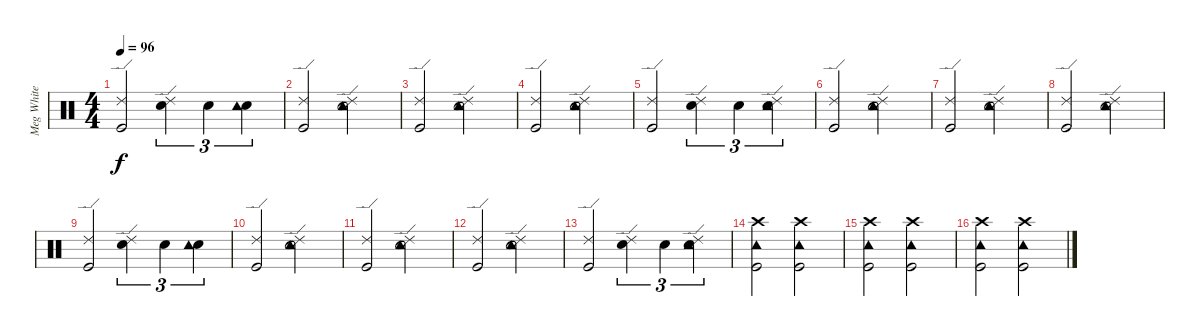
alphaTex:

\track ("Meg White" "Meg White") {instrument percussion}
\staff {score}
\articulation defaults
\ts (4 4)
\tempo 96
\clef neutral
\ks c
("Kick (hit)" "Ride (edge) 2").2{dy f} ("Electric Snare (hit)" "Ride (edge) 2").4{tu (3 2)} "Electric Snare (hit)".4{tu (3 2)} ("Electric Snare (hit)" "Tambourine (hit)").4{tu (3 2)} |
("Kick (hit)" "Ride (edge) 2").2 ("Electric Snare (hit)" "Tambourine (hit)" "Ride (edge) 2").2 |
("Kick (hit)" "Ride (edge) 2").2 ("Electric Snare (hit)" "Tambourine (hit)" "Ride (edge) 2").2 |
("Kick (hit)" "Ride (edge) 2").2 ("Electric Snare (hit)" "Tambourine (hit)" "Ride (edge) 2").2 |
("Kick (hit)" "Ride (edge) 2").2 ("Electric Snare (hit)" "Ride (edge) 2").4{tu (3 2)} "Electric Snare (hit)".4{tu (3 2)} ("Electric Snare (hit)" "Tambourine (hit)" "Ride (edge) 2").4{tu (3 2)} |
("Kick (hit)" "Ride (edge) 2").2 ("Electric Snare (hit)" "Tambourine (hit)" "Ride (edge) 2").2 |
("Kick (hit)" "Ride (edge) 2").2 ("Electric Snare (hit)" "Tambourine (hit)" "Ride (edge) 2").2 |
("Kick (hit)" "Ride (edge) 2").2 ("Electric Snare (hit)" "Tambourine (hit)" "Ride (edge) 2").2 |
("Kick (hit)" "Ride (edge) 2").2 ("Electric Snare (hit)" "Ride (edge) 2").4{tu (3 2)} "Electric Snare (hit)".4{tu (3 2)} ("Electric Snare (hit)" "Tambourine (hit)").4{tu (3 2)} |
("Kick (hit)" "Ride (edge) 2").2 ("Electric Snare (hit)" "Tambourine (hit)" "Ride (edge) 2").2 |
("Kick (hit)" "Ride (edge) 2").2 ("Electric Snare (hit)" "Tambourine (hit)" "Ride (edge) 2").2 |
("Kick (hit)" "Ride (edge) 2").2 ("Electric Snare (hit)" "Tambourine (hit)" "Ride (edge) 2").2 |
("Kick (hit)" "Ride (edge) 2").2 ("Electric Snare (hit)" "Ride (edge) 2").4{tu (3 2)} "Electric Snare (hit)".4{tu (3 2)} ("Electric Snare (hit)" "Tambourine (hit)" "Ride (edge) 2").4{tu (3 2)} |
("Kick (hit)" "Tambourine (hit)" "Crash high (hit)").2 ("Kick (hit)" "Tambourine (hit)" "Crash high (hit)").2 |
("Kick (hit)" "Tambourine (hit)" "Crash high (hit)").2 ("Kick (hit)" "Tambourine (hit)" "Crash high (hit)").2 |
("Kick (hit)" "Tambourine (hit)" "Crash high (hit)").2 ("Kick (hit)" "Tambourine (hit)" "Crash high (hit)").2
